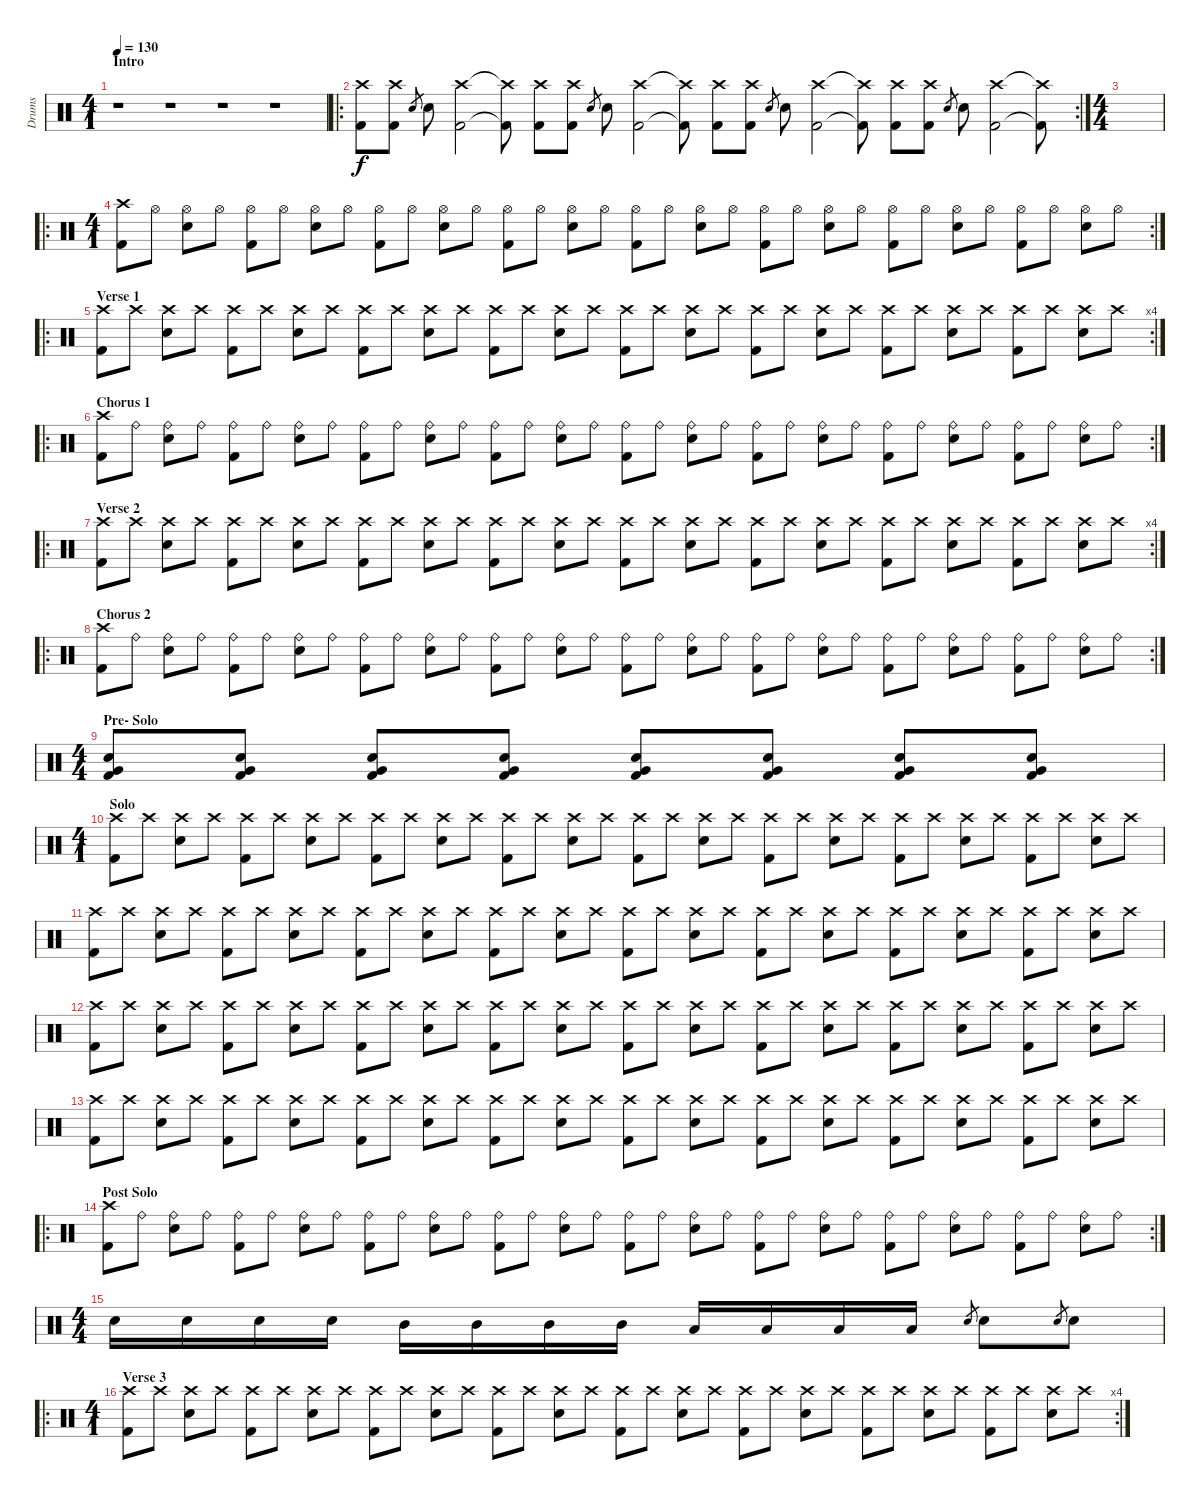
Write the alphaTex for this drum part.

\track ("Drums" "Drums") {instrument percussion}
\staff {score}
\articulation defaults
\ts (4 1)
\section ("" "Intro")
\tempo 130
\clef neutral
\ks c
r.1{dy f} r.1 r.1 r.1 |
\ro
\rc 2
("Crash high (hit)" "Kick (hit) 2").8 ("Crash high (hit)" "Kick (hit) 2").8 "Electric Snare (hit)".8{gr} "Electric Snare (hit)".8 ("Crash high (hit)" "Kick (hit) 2").2 ("Crash high (hit)"{t} "Kick (hit) 2"{t}).8 ("Crash high (hit)" "Kick (hit) 2").8 ("Crash high (hit)" "Kick (hit) 2").8 "Electric Snare (hit)".8{gr} "Electric Snare (hit)".8 ("Crash high (hit)" "Kick (hit) 2").2 ("Crash high (hit)"{t} "Kick (hit) 2"{t}).8 ("Crash high (hit)" "Kick (hit) 2").8 ("Crash high (hit)" "Kick (hit) 2").8 "Electric Snare (hit)".8{gr} "Electric Snare (hit)".8 ("Crash high (hit)" "Kick (hit) 2").2 ("Crash high (hit)"{t} "Kick (hit) 2"{t}).8 ("Crash high (hit)" "Kick (hit) 2").8 ("Crash high (hit)" "Kick (hit) 2").8 "Electric Snare (hit)".8{gr} "Electric Snare (hit)".8 ("Crash high (hit)" "Kick (hit) 2").2 ("Crash high (hit)"{t} "Kick (hit) 2"{t}).8 |
\ts (4 4)
|
\ro
\rc 2
\ts (4 1)
("Crash high (hit)" "Kick (hit) 2").8 "Hi-Hat (open)".8 ("Hi-Hat (open)" "Electric Snare (hit)").8 "Hi-Hat (open)".8 ("Hi-Hat (open)" "Kick (hit) 2").8 "Hi-Hat (open)".8 ("Hi-Hat (open)" "Electric Snare (hit)").8 "Hi-Hat (open)".8 ("Hi-Hat (open)" "Kick (hit) 2").8 "Hi-Hat (open)".8 ("Hi-Hat (open)" "Electric Snare (hit)").8 "Hi-Hat (open)".8 ("Hi-Hat (open)" "Kick (hit) 2").8 "Hi-Hat (open)".8 ("Hi-Hat (open)" "Electric Snare (hit)").8 "Hi-Hat (open)".8 ("Hi-Hat (open)" "Kick (hit) 2").8 "Hi-Hat (open)".8 ("Hi-Hat (open)" "Electric Snare (hit)").8 "Hi-Hat (open)".8 ("Hi-Hat (open)" "Kick (hit) 2").8 "Hi-Hat (open)".8 ("Hi-Hat (open)" "Electric Snare (hit)").8 "Hi-Hat (open)".8 ("Hi-Hat (open)" "Kick (hit) 2").8 "Hi-Hat (open)".8 ("Hi-Hat (open)" "Electric Snare (hit)").8 "Hi-Hat (open)".8 ("Hi-Hat (open)" "Kick (hit) 2").8 "Hi-Hat (open)".8 ("Hi-Hat (open)" "Electric Snare (hit)").8 "Hi-Hat (open)".8 |
\ro
\rc 4
\section ("" "Verse 1")
("Crash high (hit)" "Kick (hit) 2").8 "Crash high (hit)".8 ("Crash high (hit)" "Electric Snare (hit)").8 "Crash high (hit)".8 ("Crash high (hit)" "Kick (hit) 2").8 "Crash high (hit)".8 ("Crash high (hit)" "Electric Snare (hit)").8 "Crash high (hit)".8 ("Crash high (hit)" "Kick (hit) 2").8 "Crash high (hit)".8 ("Crash high (hit)" "Electric Snare (hit)").8 "Crash high (hit)".8 ("Crash high (hit)" "Kick (hit) 2").8 "Crash high (hit)".8 ("Crash high (hit)" "Electric Snare (hit)").8 "Crash high (hit)".8 ("Crash high (hit)" "Kick (hit) 2").8 "Crash high (hit)".8 ("Crash high (hit)" "Electric Snare (hit)").8 "Crash high (hit)".8 ("Crash high (hit)" "Kick (hit) 2").8 "Crash high (hit)".8 ("Crash high (hit)" "Electric Snare (hit)").8 "Crash high (hit)".8 ("Crash high (hit)" "Kick (hit) 2").8 "Crash high (hit)".8 ("Crash high (hit)" "Electric Snare (hit)").8 "Crash high (hit)".8 ("Crash high (hit)" "Kick (hit) 2").8 "Crash high (hit)".8 ("Crash high (hit)" "Electric Snare (hit)").8 "Crash high (hit)".8 |
\ro
\rc 2
\section ("" "Chorus 1")
("Crash high (hit)" "Kick (hit) 2").8 "Ride (bell)".8 ("Ride (bell)" "Electric Snare (hit)").8 "Ride (bell)".8 ("Ride (bell)" "Kick (hit) 2").8 "Ride (bell)".8 ("Ride (bell)" "Electric Snare (hit)").8 "Ride (bell)".8 ("Ride (bell)" "Kick (hit) 2").8 "Ride (bell)".8 ("Ride (bell)" "Electric Snare (hit)").8 "Ride (bell)".8 ("Ride (bell)" "Kick (hit) 2").8 "Ride (bell)".8 ("Ride (bell)" "Electric Snare (hit)").8 "Ride (bell)".8 ("Ride (bell)" "Kick (hit) 2").8 "Ride (bell)".8 ("Ride (bell)" "Electric Snare (hit)").8 "Ride (bell)".8 ("Ride (bell)" "Kick (hit) 2").8 "Ride (bell)".8 ("Ride (bell)" "Electric Snare (hit)").8 "Ride (bell)".8 ("Ride (bell)" "Kick (hit) 2").8 "Ride (bell)".8 ("Ride (bell)" "Electric Snare (hit)").8 "Ride (bell)".8 ("Ride (bell)" "Kick (hit) 2").8 "Ride (bell)".8 ("Ride (bell)" "Electric Snare (hit)").8 "Ride (bell)".8 |
\ro
\rc 4
\section ("" "Verse 2")
("Crash high (hit)" "Kick (hit) 2").8 "Crash high (hit)".8 ("Crash high (hit)" "Electric Snare (hit)").8 "Crash high (hit)".8 ("Crash high (hit)" "Kick (hit) 2").8 "Crash high (hit)".8 ("Crash high (hit)" "Electric Snare (hit)").8 "Crash high (hit)".8 ("Crash high (hit)" "Kick (hit) 2").8 "Crash high (hit)".8 ("Crash high (hit)" "Electric Snare (hit)").8 "Crash high (hit)".8 ("Crash high (hit)" "Kick (hit) 2").8 "Crash high (hit)".8 ("Crash high (hit)" "Electric Snare (hit)").8 "Crash high (hit)".8 ("Crash high (hit)" "Kick (hit) 2").8 "Crash high (hit)".8 ("Crash high (hit)" "Electric Snare (hit)").8 "Crash high (hit)".8 ("Crash high (hit)" "Kick (hit) 2").8 "Crash high (hit)".8 ("Crash high (hit)" "Electric Snare (hit)").8 "Crash high (hit)".8 ("Crash high (hit)" "Kick (hit) 2").8 "Crash high (hit)".8 ("Crash high (hit)" "Electric Snare (hit)").8 "Crash high (hit)".8 ("Crash high (hit)" "Kick (hit) 2").8 "Crash high (hit)".8 ("Crash high (hit)" "Electric Snare (hit)").8 "Crash high (hit)".8 |
\ro
\rc 2
\section ("" "Chorus 2")
("Crash high (hit)" "Kick (hit) 2").8 "Ride (bell)".8 ("Ride (bell)" "Electric Snare (hit)").8 "Ride (bell)".8 ("Ride (bell)" "Kick (hit) 2").8 "Ride (bell)".8 ("Ride (bell)" "Electric Snare (hit)").8 "Ride (bell)".8 ("Ride (bell)" "Kick (hit) 2").8 "Ride (bell)".8 ("Ride (bell)" "Electric Snare (hit)").8 "Ride (bell)".8 ("Ride (bell)" "Kick (hit) 2").8 "Ride (bell)".8 ("Ride (bell)" "Electric Snare (hit)").8 "Ride (bell)".8 ("Ride (bell)" "Kick (hit) 2").8 "Ride (bell)".8 ("Ride (bell)" "Electric Snare (hit)").8 "Ride (bell)".8 ("Ride (bell)" "Kick (hit) 2").8 "Ride (bell)".8 ("Ride (bell)" "Electric Snare (hit)").8 "Ride (bell)".8 ("Ride (bell)" "Kick (hit) 2").8 "Ride (bell)".8 ("Ride (bell)" "Electric Snare (hit)").8 "Ride (bell)".8 ("Ride (bell)" "Kick (hit) 2").8 "Ride (bell)".8 ("Ride (bell)" "Electric Snare (hit)").8 "Ride (bell)".8 |
\ts (4 4)
\section ("" "Pre- Solo")
("Electric Snare (hit)" "Very Low Tom (hit)" "Kick (hit) 2").8 ("Electric Snare (hit)" "Very Low Tom (hit)" "Kick (hit) 2").8 ("Electric Snare (hit)" "Very Low Tom (hit)" "Kick (hit) 2").8 ("Electric Snare (hit)" "Very Low Tom (hit)" "Kick (hit) 2").8 ("Electric Snare (hit)" "Very Low Tom (hit)" "Kick (hit) 2").8 ("Electric Snare (hit)" "Very Low Tom (hit)" "Kick (hit) 2").8 ("Electric Snare (hit)" "Very Low Tom (hit)" "Kick (hit) 2").8 ("Electric Snare (hit)" "Very Low Tom (hit)" "Kick (hit) 2").8 |
\ts (4 1)
\section ("" "Solo")
("Crash high (hit)" "Kick (hit) 2").8 "Crash high (hit)".8 ("Crash high (hit)" "Electric Snare (hit)").8 "Crash high (hit)".8 ("Crash high (hit)" "Kick (hit) 2").8 "Crash high (hit)".8 ("Crash high (hit)" "Electric Snare (hit)").8 "Crash high (hit)".8 ("Crash high (hit)" "Kick (hit) 2").8 "Crash high (hit)".8 ("Crash high (hit)" "Electric Snare (hit)").8 "Crash high (hit)".8 ("Crash high (hit)" "Kick (hit) 2").8 "Crash high (hit)".8 ("Crash high (hit)" "Electric Snare (hit)").8 "Crash high (hit)".8 ("Crash high (hit)" "Kick (hit) 2").8 "Crash high (hit)".8 ("Crash high (hit)" "Electric Snare (hit)").8 "Crash high (hit)".8 ("Crash high (hit)" "Kick (hit) 2").8 "Crash high (hit)".8 ("Crash high (hit)" "Electric Snare (hit)").8 "Crash high (hit)".8 ("Crash high (hit)" "Kick (hit) 2").8 "Crash high (hit)".8 ("Crash high (hit)" "Electric Snare (hit)").8 "Crash high (hit)".8 ("Crash high (hit)" "Kick (hit) 2").8 "Crash high (hit)".8 ("Crash high (hit)" "Electric Snare (hit)").8 "Crash high (hit)".8 |
("Crash high (hit)" "Kick (hit) 2").8 "Crash high (hit)".8 ("Crash high (hit)" "Electric Snare (hit)").8 "Crash high (hit)".8 ("Crash high (hit)" "Kick (hit) 2").8 "Crash high (hit)".8 ("Crash high (hit)" "Electric Snare (hit)").8 "Crash high (hit)".8 ("Crash high (hit)" "Kick (hit) 2").8 "Crash high (hit)".8 ("Crash high (hit)" "Electric Snare (hit)").8 "Crash high (hit)".8 ("Crash high (hit)" "Kick (hit) 2").8 "Crash high (hit)".8 ("Crash high (hit)" "Electric Snare (hit)").8 "Crash high (hit)".8 ("Crash high (hit)" "Kick (hit) 2").8 "Crash high (hit)".8 ("Crash high (hit)" "Electric Snare (hit)").8 "Crash high (hit)".8 ("Crash high (hit)" "Kick (hit) 2").8 "Crash high (hit)".8 ("Crash high (hit)" "Electric Snare (hit)").8 "Crash high (hit)".8 ("Crash high (hit)" "Kick (hit) 2").8 "Crash high (hit)".8 ("Crash high (hit)" "Electric Snare (hit)").8 "Crash high (hit)".8 ("Crash high (hit)" "Kick (hit) 2").8 "Crash high (hit)".8 ("Crash high (hit)" "Electric Snare (hit)").8 "Crash high (hit)".8 |
("Crash high (hit)" "Kick (hit) 2").8 "Crash high (hit)".8 ("Crash high (hit)" "Electric Snare (hit)").8 "Crash high (hit)".8 ("Crash high (hit)" "Kick (hit) 2").8 "Crash high (hit)".8 ("Crash high (hit)" "Electric Snare (hit)").8 "Crash high (hit)".8 ("Crash high (hit)" "Kick (hit) 2").8 "Crash high (hit)".8 ("Crash high (hit)" "Electric Snare (hit)").8 "Crash high (hit)".8 ("Crash high (hit)" "Kick (hit) 2").8 "Crash high (hit)".8 ("Crash high (hit)" "Electric Snare (hit)").8 "Crash high (hit)".8 ("Crash high (hit)" "Kick (hit) 2").8 "Crash high (hit)".8 ("Crash high (hit)" "Electric Snare (hit)").8 "Crash high (hit)".8 ("Crash high (hit)" "Kick (hit) 2").8 "Crash high (hit)".8 ("Crash high (hit)" "Electric Snare (hit)").8 "Crash high (hit)".8 ("Crash high (hit)" "Kick (hit) 2").8 "Crash high (hit)".8 ("Crash high (hit)" "Electric Snare (hit)").8 "Crash high (hit)".8 ("Crash high (hit)" "Kick (hit) 2").8 "Crash high (hit)".8 ("Crash high (hit)" "Electric Snare (hit)").8 "Crash high (hit)".8 |
("Crash high (hit)" "Kick (hit) 2").8 "Crash high (hit)".8 ("Crash high (hit)" "Electric Snare (hit)").8 "Crash high (hit)".8 ("Crash high (hit)" "Kick (hit) 2").8 "Crash high (hit)".8 ("Crash high (hit)" "Electric Snare (hit)").8 "Crash high (hit)".8 ("Crash high (hit)" "Kick (hit) 2").8 "Crash high (hit)".8 ("Crash high (hit)" "Electric Snare (hit)").8 "Crash high (hit)".8 ("Crash high (hit)" "Kick (hit) 2").8 "Crash high (hit)".8 ("Crash high (hit)" "Electric Snare (hit)").8 "Crash high (hit)".8 ("Crash high (hit)" "Kick (hit) 2").8 "Crash high (hit)".8 ("Crash high (hit)" "Electric Snare (hit)").8 "Crash high (hit)".8 ("Crash high (hit)" "Kick (hit) 2").8 "Crash high (hit)".8 ("Crash high (hit)" "Electric Snare (hit)").8 "Crash high (hit)".8 ("Crash high (hit)" "Kick (hit) 2").8 "Crash high (hit)".8 ("Crash high (hit)" "Electric Snare (hit)").8 "Crash high (hit)".8 ("Crash high (hit)" "Kick (hit) 2").8 "Crash high (hit)".8 ("Crash high (hit)" "Electric Snare (hit)").8 "Crash high (hit)".8 |
\ro
\rc 2
\section ("" "Post Solo")
("Crash high (hit)" "Kick (hit) 2").8 "Ride (bell)".8 ("Ride (bell)" "Electric Snare (hit)").8 "Ride (bell)".8 ("Ride (bell)" "Kick (hit) 2").8 "Ride (bell)".8 ("Ride (bell)" "Electric Snare (hit)").8 "Ride (bell)".8 ("Ride (bell)" "Kick (hit) 2").8 "Ride (bell)".8 ("Ride (bell)" "Electric Snare (hit)").8 "Ride (bell)".8 ("Ride (bell)" "Kick (hit) 2").8 "Ride (bell)".8 ("Ride (bell)" "Electric Snare (hit)").8 "Ride (bell)".8 ("Ride (bell)" "Kick (hit) 2").8 "Ride (bell)".8 ("Ride (bell)" "Electric Snare (hit)").8 "Ride (bell)".8 ("Ride (bell)" "Kick (hit) 2").8 "Ride (bell)".8 ("Ride (bell)" "Electric Snare (hit)").8 "Ride (bell)".8 ("Ride (bell)" "Kick (hit) 2").8 "Ride (bell)".8 ("Ride (bell)" "Electric Snare (hit)").8 "Ride (bell)".8 ("Ride (bell)" "Kick (hit) 2").8 "Ride (bell)".8 ("Ride (bell)" "Electric Snare (hit)").8 "Ride (bell)".8 |
\ts (4 4)
"Electric Snare (hit)".16 "Electric Snare (hit)".16 "Electric Snare (hit)".16 "Electric Snare (hit)".16 "Mid Tom (hit)".16 "Mid Tom (hit)".16 "Mid Tom (hit)".16 "Mid Tom (hit)".16 "Low Tom (hit)".16 "Low Tom (hit)".16 "Low Tom (hit)".16 "Low Tom (hit)".16 "Electric Snare (hit)".8{gr} "Electric Snare (hit)".8 "Electric Snare (hit)".8{gr} "Electric Snare (hit)".8 |
\ro
\rc 4
\ts (4 1)
\section ("" "Verse 3")
("Crash high (hit)" "Kick (hit) 2").8 "Crash high (hit)".8 ("Crash high (hit)" "Electric Snare (hit)").8 "Crash high (hit)".8 ("Crash high (hit)" "Kick (hit) 2").8 "Crash high (hit)".8 ("Crash high (hit)" "Electric Snare (hit)").8 "Crash high (hit)".8 ("Crash high (hit)" "Kick (hit) 2").8 "Crash high (hit)".8 ("Crash high (hit)" "Electric Snare (hit)").8 "Crash high (hit)".8 ("Crash high (hit)" "Kick (hit) 2").8 "Crash high (hit)".8 ("Crash high (hit)" "Electric Snare (hit)").8 "Crash high (hit)".8 ("Crash high (hit)" "Kick (hit) 2").8 "Crash high (hit)".8 ("Crash high (hit)" "Electric Snare (hit)").8 "Crash high (hit)".8 ("Crash high (hit)" "Kick (hit) 2").8 "Crash high (hit)".8 ("Crash high (hit)" "Electric Snare (hit)").8 "Crash high (hit)".8 ("Crash high (hit)" "Kick (hit) 2").8 "Crash high (hit)".8 ("Crash high (hit)" "Electric Snare (hit)").8 "Crash high (hit)".8 ("Crash high (hit)" "Kick (hit) 2").8 "Crash high (hit)".8 ("Crash high (hit)" "Electric Snare (hit)").8 "Crash high (hit)".8
